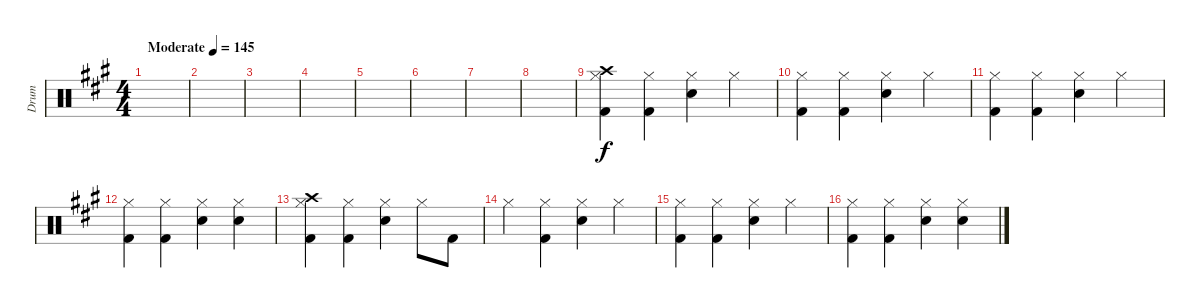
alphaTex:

\track ("Drum" "Drum") {instrument percussion}
\staff {score}
\articulation defaults
\ts (4 4)
\tempo (145 "Moderate")
\clef neutral
\ks a
|
|
|
|
|
|
|
|
("Hi-Hat (closed)" "Kick (hit) 2" "Crash high (hit)").4 ("Hi-Hat (closed)" "Kick (hit) 2").4 ("Hi-Hat (closed)" "Electric Snare (hit)").4 "Hi-Hat (closed)".4 |
("Hi-Hat (closed)" "Kick (hit) 2").4 ("Hi-Hat (closed)" "Kick (hit) 2").4 ("Hi-Hat (closed)" "Electric Snare (hit)").4 "Hi-Hat (closed)".4 |
("Hi-Hat (closed)" "Kick (hit) 2").4 ("Hi-Hat (closed)" "Kick (hit) 2").4 ("Hi-Hat (closed)" "Electric Snare (hit)").4 "Hi-Hat (closed)".4 |
("Hi-Hat (closed)" "Kick (hit) 2").4 ("Hi-Hat (closed)" "Kick (hit) 2").4 ("Hi-Hat (closed)" "Electric Snare (hit)").4 ("Hi-Hat (closed)" "Electric Snare (hit)").4 |
("Hi-Hat (closed)" "Kick (hit) 2" "Crash high (hit)").4 ("Hi-Hat (closed)" "Kick (hit) 2").4 ("Hi-Hat (closed)" "Electric Snare (hit)").4 "Hi-Hat (closed)".8 "Kick (hit) 2".8 |
"Hi-Hat (closed)".4 ("Hi-Hat (closed)" "Kick (hit) 2").4 ("Hi-Hat (closed)" "Electric Snare (hit)").4 "Hi-Hat (closed)".4 |
("Hi-Hat (closed)" "Kick (hit) 2").4 ("Hi-Hat (closed)" "Kick (hit) 2").4 ("Hi-Hat (closed)" "Electric Snare (hit)").4 "Hi-Hat (closed)".4 |
("Hi-Hat (closed)" "Kick (hit) 2").4 ("Hi-Hat (closed)" "Kick (hit) 2").4 ("Hi-Hat (closed)" "Electric Snare (hit)").4 ("Hi-Hat (closed)" "Electric Snare (hit)").4
